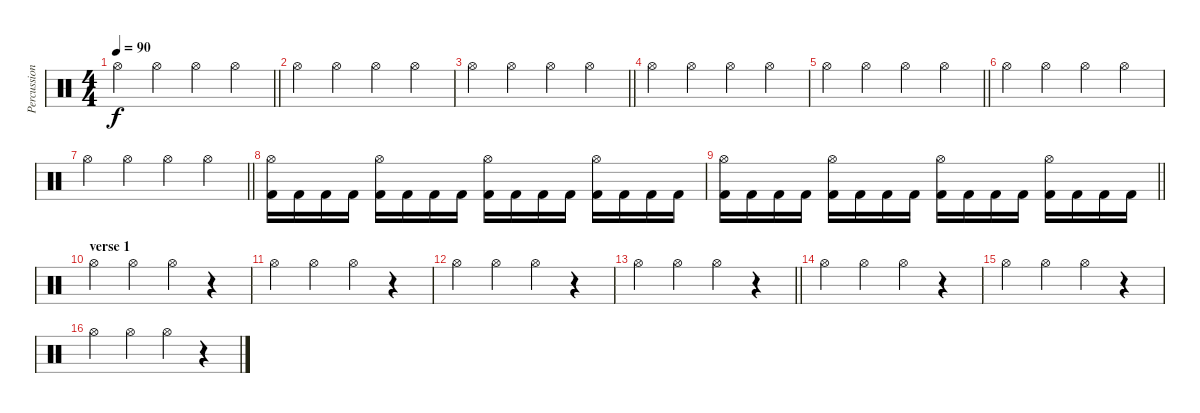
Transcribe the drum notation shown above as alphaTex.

\track ("Percussion" "Percussion") {instrument percussion}
\staff {score}
\articulation defaults
\ts (4 4)
\tempo 90
\clef neutral
\barLineRight lightlight
\ks c "Hi-Hat (open)".4{dy f} "Hi-Hat (open)".4 "Hi-Hat (open)".4 "Hi-Hat (open)".4
|
"Hi-Hat (open)".4 "Hi-Hat (open)".4 "Hi-Hat (open)".4 "Hi-Hat (open)".4 |
\barLineRight lightlight "Hi-Hat (open)".4 "Hi-Hat (open)".4 "Hi-Hat (open)".4 "Hi-Hat (open)".4
|
"Hi-Hat (open)".4 "Hi-Hat (open)".4 "Hi-Hat (open)".4 "Hi-Hat (open)".4 |
\barLineRight lightlight "Hi-Hat (open)".4 "Hi-Hat (open)".4 "Hi-Hat (open)".4 "Hi-Hat (open)".4
|
"Hi-Hat (open)".4 "Hi-Hat (open)".4 "Hi-Hat (open)".4 "Hi-Hat (open)".4 |
\barLineRight lightlight "Hi-Hat (open)".4 "Hi-Hat (open)".4 "Hi-Hat (open)".4 "Hi-Hat (open)".4
|
("Hi-Hat (open)" "Kick (hit) 2").16 "Kick (hit) 2".16 "Kick (hit) 2".16 "Kick (hit) 2".16 ("Hi-Hat (open)" "Kick (hit) 2").16 "Kick (hit) 2".16 "Kick (hit) 2".16 "Kick (hit) 2".16 ("Hi-Hat (open)" "Kick (hit) 2").16 "Kick (hit) 2".16 "Kick (hit) 2".16 "Kick (hit) 2".16 ("Hi-Hat (open)" "Kick (hit) 2").16 "Kick (hit) 2".16 "Kick (hit) 2".16 "Kick (hit) 2".16 |
\barLineRight lightlight
("Hi-Hat (open)" "Kick (hit) 2").16 "Kick (hit) 2".16 "Kick (hit) 2".16 "Kick (hit) 2".16 ("Hi-Hat (open)" "Kick (hit) 2").16 "Kick (hit) 2".16 "Kick (hit) 2".16 "Kick (hit) 2".16 ("Hi-Hat (open)" "Kick (hit) 2").16 "Kick (hit) 2".16 "Kick (hit) 2".16 "Kick (hit) 2".16 ("Hi-Hat (open)" "Kick (hit) 2").16 "Kick (hit) 2".16 "Kick (hit) 2".16 "Kick (hit) 2".16 |
\section ("" "verse 1")
"Hi-Hat (open)".4 "Hi-Hat (open)".4 "Hi-Hat (open)".4 r.4 |
"Hi-Hat (open)".4 "Hi-Hat (open)".4 "Hi-Hat (open)".4 r.4 |
"Hi-Hat (open)".4 "Hi-Hat (open)".4 "Hi-Hat (open)".4 r.4 |
\barLineRight lightlight "Hi-Hat (open)".4 "Hi-Hat (open)".4 "Hi-Hat (open)".4
r.4 |
"Hi-Hat (open)".4 "Hi-Hat (open)".4 "Hi-Hat (open)".4 r.4 |
"Hi-Hat (open)".4 "Hi-Hat (open)".4 "Hi-Hat (open)".4 r.4 |
"Hi-Hat (open)".4 "Hi-Hat (open)".4 "Hi-Hat (open)".4 r.4
